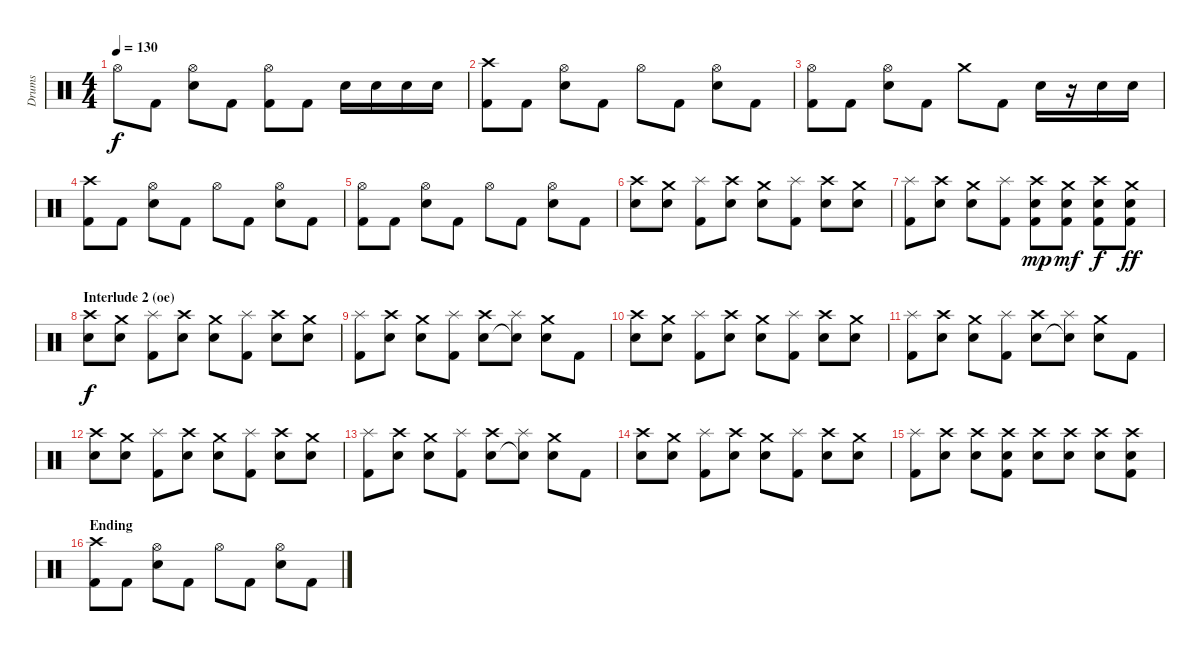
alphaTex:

\track ("Drums" "Drums") {instrument percussion}
\staff {score}
\articulation defaults
\ts (4 4)
\tempo 130
\clef neutral
\ks c "Hi-Hat (open)".8{dy f} "Kick (hit) 2".8
("Hi-Hat (open)" "Electric Snare (hit)").8 "Kick (hit) 2".8 ("Hi-Hat (open)" "Kick (hit) 2").8 "Kick (hit) 2".8 "Electric Snare (hit)".16 "Electric Snare (hit)".16 "Electric Snare (hit)".16 "Electric Snare (hit)".16 |
("Crash high (hit)" "Kick (hit) 2").8 "Kick (hit) 2".8 ("Hi-Hat (open)" "Electric Snare (hit)").8 "Kick (hit) 2".8 "Hi-Hat (open)".8 "Kick (hit) 2".8 ("Hi-Hat (open)" "Electric Snare (hit)").8 "Kick (hit) 2".8 |
("Hi-Hat (open)" "Kick (hit) 2").8 "Kick (hit) 2".8 ("Hi-Hat (open)" "Electric Snare (hit)").8 "Kick (hit) 2".8 "Crash medium (hit)".8 "Kick (hit) 2".8 "Electric Snare (hit)".16 r.16 "Electric Snare (hit)".16 "Electric Snare (hit)".16 |
("Crash high (hit)" "Kick (hit) 2").8 "Kick (hit) 2".8 ("Hi-Hat (open)" "Electric Snare (hit)").8 "Kick (hit) 2".8 "Hi-Hat (open)".8 "Kick (hit) 2".8 ("Hi-Hat (open)" "Electric Snare (hit)").8 "Kick (hit) 2".8 |
("Hi-Hat (open)" "Kick (hit) 2").8 "Kick (hit) 2".8 ("Hi-Hat (open)" "Electric Snare (hit)").8 "Kick (hit) 2".8 "Hi-Hat (open)".8 "Kick (hit) 2".8 ("Hi-Hat (open)" "Electric Snare (hit)").8 "Kick (hit) 2".8 |
("Crash high (hit)" "Electric Snare (hit)").8 ("Crash medium (hit)" "Electric Snare (hit)").8 ("Splash (hit)" "Kick (hit) 2").8 ("Crash high (hit)" "Electric Snare (hit)").8 ("Crash medium (hit)" "Electric Snare (hit)").8 ("Splash (hit)" "Kick (hit) 2").8 ("Crash high (hit)" "Electric Snare (hit)").8 ("Crash medium (hit)" "Electric Snare (hit)").8 |
("Splash (hit)" "Kick (hit) 2").8 ("Crash high (hit)" "Electric Snare (hit)").8 ("Crash medium (hit)" "Electric Snare (hit)").8 ("Splash (hit)" "Kick (hit) 2").8 ("Crash high (hit)" "Electric Snare (hit)" "Kick (hit) 2").8{dy mp} ("Crash medium (hit)" "Electric Snare (hit)" "Kick (hit) 2").8{dy mf} ("Crash high (hit)" "Electric Snare (hit)" "Kick (hit) 2").8{dy f} ("Crash medium (hit)" "Electric Snare (hit)" "Kick (hit) 2").8{dy ff} |
\section ("" "Interlude 2 (oe)")
("Crash high (hit)" "Electric Snare (hit)").8{dy f} ("Crash medium (hit)" "Electric Snare (hit)").8 ("Splash (hit)" "Kick (hit) 2").8 ("Crash high (hit)" "Electric Snare (hit)").8 ("Crash medium (hit)" "Electric Snare (hit)").8 ("Splash (hit)" "Kick (hit) 2").8 ("Crash high (hit)" "Electric Snare (hit)").8 ("Crash medium (hit)" "Electric Snare (hit)").8 |
("Splash (hit)" "Kick (hit) 2").8 ("Crash high (hit)" "Electric Snare (hit)").8 ("Crash medium (hit)" "Electric Snare (hit)").8 ("Splash (hit)" "Kick (hit) 2").8 ("Crash high (hit)" "Electric Snare (hit)").8 ("Splash (hit)" "Snare (hit)"{t}).8 ("Crash medium (hit)" "Electric Snare (hit)").8 "Kick (hit) 2".8 |
("Crash high (hit)" "Electric Snare (hit)").8 ("Crash medium (hit)" "Electric Snare (hit)").8 ("Splash (hit)" "Kick (hit) 2").8 ("Crash high (hit)" "Electric Snare (hit)").8 ("Crash medium (hit)" "Electric Snare (hit)").8 ("Splash (hit)" "Kick (hit) 2").8 ("Crash high (hit)" "Electric Snare (hit)").8 ("Crash medium (hit)" "Electric Snare (hit)").8 |
("Splash (hit)" "Kick (hit) 2").8 ("Crash high (hit)" "Electric Snare (hit)").8 ("Crash medium (hit)" "Electric Snare (hit)").8 ("Splash (hit)" "Kick (hit) 2").8 ("Crash high (hit)" "Electric Snare (hit)").8 ("Splash (hit)" "Snare (hit)"{t}).8 ("Crash medium (hit)" "Electric Snare (hit)").8 "Kick (hit) 2".8 |
("Crash high (hit)" "Electric Snare (hit)").8 ("Crash medium (hit)" "Electric Snare (hit)").8 ("Splash (hit)" "Kick (hit) 2").8 ("Crash high (hit)" "Electric Snare (hit)").8 ("Crash medium (hit)" "Electric Snare (hit)").8 ("Splash (hit)" "Kick (hit) 2").8 ("Crash high (hit)" "Electric Snare (hit)").8 ("Crash medium (hit)" "Electric Snare (hit)").8 |
("Splash (hit)" "Kick (hit) 2").8 ("Crash high (hit)" "Electric Snare (hit)").8 ("Crash medium (hit)" "Electric Snare (hit)").8 ("Splash (hit)" "Kick (hit) 2").8 ("Crash high (hit)" "Electric Snare (hit)").8 ("Splash (hit)" "Snare (hit)"{t}).8 ("Crash medium (hit)" "Electric Snare (hit)").8 "Kick (hit) 2".8 |
("Crash high (hit)" "Electric Snare (hit)").8 ("Crash medium (hit)" "Electric Snare (hit)").8 ("Splash (hit)" "Kick (hit) 2").8 ("Crash high (hit)" "Electric Snare (hit)").8 ("Crash medium (hit)" "Electric Snare (hit)").8 ("Splash (hit)" "Kick (hit) 2").8 ("Crash high (hit)" "Electric Snare (hit)").8 ("Crash medium (hit)" "Electric Snare (hit)").8 |
("Splash (hit)" "Kick (hit) 2").8 ("Crash high (hit)" "Electric Snare (hit)").8 ("Crash high (hit)" "Electric Snare (hit)").8 ("Crash high (hit)" "Electric Snare (hit)" "Kick (hit) 2").8 ("Crash high (hit)" "Electric Snare (hit)").8 ("Crash high (hit)" "Electric Snare (hit)").8 ("Crash high (hit)" "Electric Snare (hit)").8 ("Crash high (hit)" "Electric Snare (hit)" "Kick (hit) 2").8 |
\section ("" "Ending")
("Crash high (hit)" "Kick (hit) 2").8 "Kick (hit) 2".8 ("Hi-Hat (open)" "Electric Snare (hit)").8 "Kick (hit) 2".8 "Hi-Hat (open)".8 "Kick (hit) 2".8 ("Hi-Hat (open)" "Electric Snare (hit)").8 "Kick (hit) 2".8
